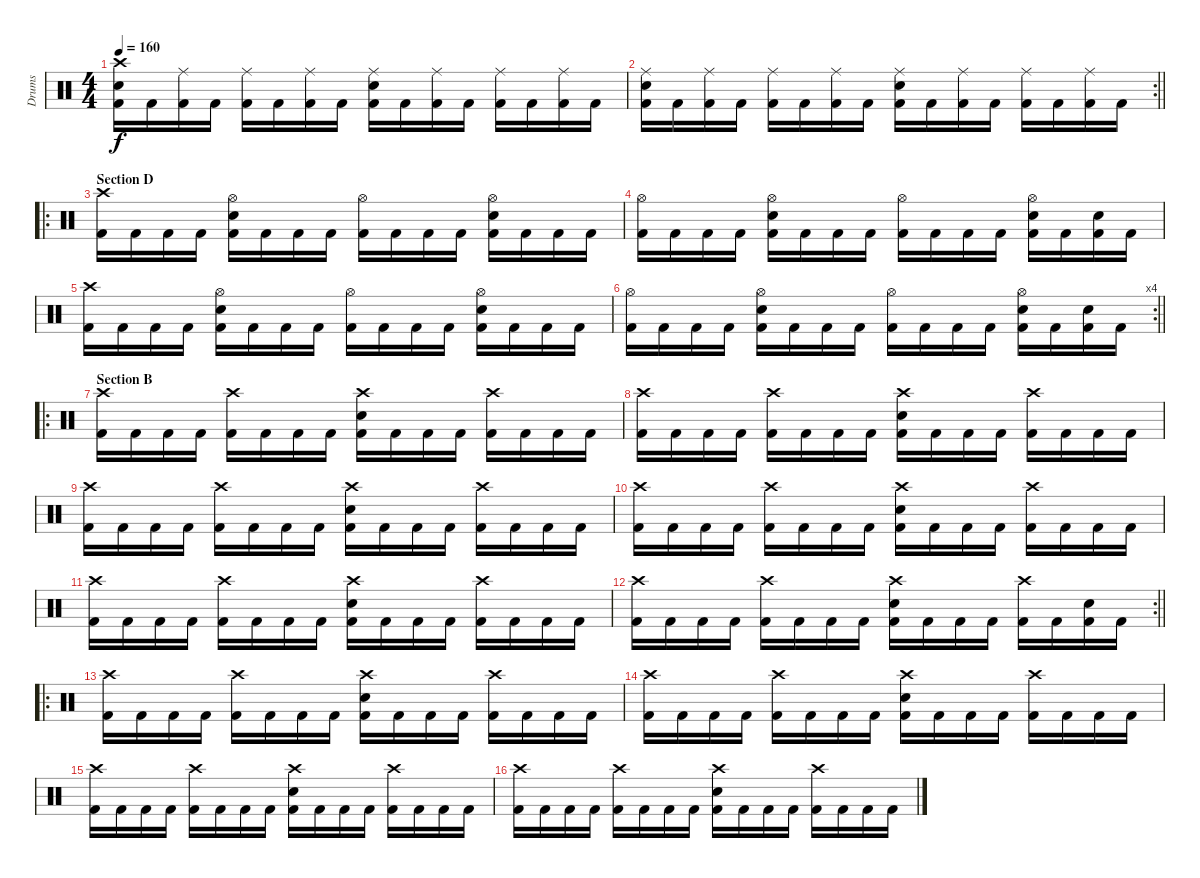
\track ("Drums" "Drums") {instrument percussion}
\staff {score}
\articulation defaults
\ts (4 4)
\tempo 160
\clef neutral
\ks c
("Crash high (hit)" "Snare (hit) 2" "Kick (hit) 2").16{dy f} "Kick (hit) 2".16 ("Ride (middle)" "Kick (hit) 2").16 "Kick (hit) 2".16 ("Ride (middle)" "Kick (hit) 2").16 "Kick (hit) 2".16 ("Ride (middle)" "Kick (hit) 2").16 "Kick (hit) 2".16 ("Ride (middle)" "Snare (hit) 2" "Kick (hit) 2").16 "Kick (hit) 2".16 ("Ride (middle)" "Kick (hit) 2").16 "Kick (hit) 2".16 ("Ride (middle)" "Kick (hit) 2").16 "Kick (hit) 2".16 ("Ride (middle)" "Kick (hit) 2").16 "Kick (hit) 2".16 |
\rc 2
\barLineRight lightlight
("Ride (middle)" "Snare (hit) 2" "Kick (hit) 2").16 "Kick (hit) 2".16 ("Ride (middle)" "Kick (hit) 2").16 "Kick (hit) 2".16 ("Ride (middle)" "Kick (hit) 2").16 "Kick (hit) 2".16 ("Ride (middle)" "Kick (hit) 2").16 "Kick (hit) 2".16 ("Ride (middle)" "Snare (hit) 2" "Kick (hit) 2").16 "Kick (hit) 2".16 ("Ride (middle)" "Kick (hit) 2").16 "Kick (hit) 2".16 ("Ride (middle)" "Kick (hit) 2").16 "Kick (hit) 2".16 ("Ride (middle)" "Kick (hit) 2").16 "Kick (hit) 2".16 |
\ro
\section ("" "Section D")
("Crash high (hit)" "Kick (hit) 2").16 "Kick (hit) 2".16 "Kick (hit) 2".16 "Kick (hit) 2".16 ("Hi-Hat (open)" "Snare (hit) 2" "Kick (hit) 2").16 "Kick (hit) 2".16 "Kick (hit) 2".16 "Kick (hit) 2".16 ("Hi-Hat (open)" "Kick (hit) 2").16 "Kick (hit) 2".16 "Kick (hit) 2".16 "Kick (hit) 2".16 ("Hi-Hat (open)" "Snare (hit) 2" "Kick (hit) 2").16 "Kick (hit) 2".16 "Kick (hit) 2".16 "Kick (hit) 2".16 |
("Hi-Hat (open)" "Kick (hit) 2").16 "Kick (hit) 2".16 "Kick (hit) 2".16 "Kick (hit) 2".16 ("Hi-Hat (open)" "Snare (hit) 2" "Kick (hit) 2").16 "Kick (hit) 2".16 "Kick (hit) 2".16 "Kick (hit) 2".16 ("Hi-Hat (open)" "Kick (hit) 2").16 "Kick (hit) 2".16 "Kick (hit) 2".16 "Kick (hit) 2".16 ("Hi-Hat (open)" "Snare (hit) 2" "Kick (hit) 2").16 "Kick (hit) 2".16 ("Snare (hit) 2" "Kick (hit) 2").16 "Kick (hit) 2".16 |
("Crash high (hit)" "Kick (hit) 2").16 "Kick (hit) 2".16 "Kick (hit) 2".16 "Kick (hit) 2".16 ("Hi-Hat (open)" "Snare (hit) 2" "Kick (hit) 2").16 "Kick (hit) 2".16 "Kick (hit) 2".16 "Kick (hit) 2".16 ("Hi-Hat (open)" "Kick (hit) 2").16 "Kick (hit) 2".16 "Kick (hit) 2".16 "Kick (hit) 2".16 ("Hi-Hat (open)" "Snare (hit) 2" "Kick (hit) 2").16 "Kick (hit) 2".16 "Kick (hit) 2".16 "Kick (hit) 2".16 |
\rc 4
\barLineRight lightlight
("Hi-Hat (open)" "Kick (hit) 2").16 "Kick (hit) 2".16 "Kick (hit) 2".16 "Kick (hit) 2".16 ("Hi-Hat (open)" "Snare (hit) 2" "Kick (hit) 2").16 "Kick (hit) 2".16 "Kick (hit) 2".16 "Kick (hit) 2".16 ("Hi-Hat (open)" "Kick (hit) 2").16 "Kick (hit) 2".16 "Kick (hit) 2".16 "Kick (hit) 2".16 ("Hi-Hat (open)" "Snare (hit) 2" "Kick (hit) 2").16 "Kick (hit) 2".16 ("Snare (hit) 2" "Kick (hit) 2").16 "Kick (hit) 2".16 |
\ro
\section ("" "Section B")
("Crash high (hit)" "Kick (hit) 2").16 "Kick (hit) 2".16 "Kick (hit) 2".16 "Kick (hit) 2".16 ("Crash high (hit)" "Kick (hit) 2").16 "Kick (hit) 2".16 "Kick (hit) 2".16 "Kick (hit) 2".16 ("Crash high (hit)" "Snare (hit) 2" "Kick (hit) 2").16 "Kick (hit) 2".16 "Kick (hit) 2".16 "Kick (hit) 2".16 ("Crash high (hit)" "Kick (hit) 2").16 "Kick (hit) 2".16 "Kick (hit) 2".16 "Kick (hit) 2".16 |
("Crash high (hit)" "Kick (hit) 2").16 "Kick (hit) 2".16 "Kick (hit) 2".16 "Kick (hit) 2".16 ("Crash high (hit)" "Kick (hit) 2").16 "Kick (hit) 2".16 "Kick (hit) 2".16 "Kick (hit) 2".16 ("Crash high (hit)" "Snare (hit) 2" "Kick (hit) 2").16 "Kick (hit) 2".16 "Kick (hit) 2".16 "Kick (hit) 2".16 ("Crash high (hit)" "Kick (hit) 2").16 "Kick (hit) 2".16 "Kick (hit) 2".16 "Kick (hit) 2".16 |
("Crash high (hit)" "Kick (hit) 2").16 "Kick (hit) 2".16 "Kick (hit) 2".16 "Kick (hit) 2".16 ("Crash high (hit)" "Kick (hit) 2").16 "Kick (hit) 2".16 "Kick (hit) 2".16 "Kick (hit) 2".16 ("Crash high (hit)" "Snare (hit) 2" "Kick (hit) 2").16 "Kick (hit) 2".16 "Kick (hit) 2".16 "Kick (hit) 2".16 ("Crash high (hit)" "Kick (hit) 2").16 "Kick (hit) 2".16 "Kick (hit) 2".16 "Kick (hit) 2".16 |
("Crash high (hit)" "Kick (hit) 2").16 "Kick (hit) 2".16 "Kick (hit) 2".16 "Kick (hit) 2".16 ("Crash high (hit)" "Kick (hit) 2").16 "Kick (hit) 2".16 "Kick (hit) 2".16 "Kick (hit) 2".16 ("Crash high (hit)" "Snare (hit) 2" "Kick (hit) 2").16 "Kick (hit) 2".16 "Kick (hit) 2".16 "Kick (hit) 2".16 ("Crash high (hit)" "Kick (hit) 2").16 "Kick (hit) 2".16 "Kick (hit) 2".16 "Kick (hit) 2".16 |
("Crash high (hit)" "Kick (hit) 2").16 "Kick (hit) 2".16 "Kick (hit) 2".16 "Kick (hit) 2".16 ("Crash high (hit)" "Kick (hit) 2").16 "Kick (hit) 2".16 "Kick (hit) 2".16 "Kick (hit) 2".16 ("Crash high (hit)" "Snare (hit) 2" "Kick (hit) 2").16 "Kick (hit) 2".16 "Kick (hit) 2".16 "Kick (hit) 2".16 ("Crash high (hit)" "Kick (hit) 2").16 "Kick (hit) 2".16 "Kick (hit) 2".16 "Kick (hit) 2".16 |
\rc 2
\barLineRight lightlight
("Crash high (hit)" "Kick (hit) 2").16 "Kick (hit) 2".16 "Kick (hit) 2".16 "Kick (hit) 2".16 ("Crash high (hit)" "Kick (hit) 2").16 "Kick (hit) 2".16 "Kick (hit) 2".16 "Kick (hit) 2".16 ("Crash high (hit)" "Snare (hit) 2" "Kick (hit) 2").16 "Kick (hit) 2".16 "Kick (hit) 2".16 "Kick (hit) 2".16 ("Crash high (hit)" "Kick (hit) 2").16 "Kick (hit) 2".16 ("Snare (hit) 2" "Kick (hit) 2").16 "Kick (hit) 2".16 |
\ro
("Crash high (hit)" "Kick (hit) 2").16 "Kick (hit) 2".16 "Kick (hit) 2".16 "Kick (hit) 2".16 ("Crash high (hit)" "Kick (hit) 2").16 "Kick (hit) 2".16 "Kick (hit) 2".16 "Kick (hit) 2".16 ("Crash high (hit)" "Snare (hit) 2" "Kick (hit) 2").16 "Kick (hit) 2".16 "Kick (hit) 2".16 "Kick (hit) 2".16 ("Crash high (hit)" "Kick (hit) 2").16 "Kick (hit) 2".16 "Kick (hit) 2".16 "Kick (hit) 2".16 |
("Crash high (hit)" "Kick (hit) 2").16 "Kick (hit) 2".16 "Kick (hit) 2".16 "Kick (hit) 2".16 ("Crash high (hit)" "Kick (hit) 2").16 "Kick (hit) 2".16 "Kick (hit) 2".16 "Kick (hit) 2".16 ("Crash high (hit)" "Snare (hit) 2" "Kick (hit) 2").16 "Kick (hit) 2".16 "Kick (hit) 2".16 "Kick (hit) 2".16 ("Crash high (hit)" "Kick (hit) 2").16 "Kick (hit) 2".16 "Kick (hit) 2".16 "Kick (hit) 2".16 |
("Crash high (hit)" "Kick (hit) 2").16 "Kick (hit) 2".16 "Kick (hit) 2".16 "Kick (hit) 2".16 ("Crash high (hit)" "Kick (hit) 2").16 "Kick (hit) 2".16 "Kick (hit) 2".16 "Kick (hit) 2".16 ("Crash high (hit)" "Snare (hit) 2" "Kick (hit) 2").16 "Kick (hit) 2".16 "Kick (hit) 2".16 "Kick (hit) 2".16 ("Crash high (hit)" "Kick (hit) 2").16 "Kick (hit) 2".16 "Kick (hit) 2".16 "Kick (hit) 2".16 |
("Crash high (hit)" "Kick (hit) 2").16 "Kick (hit) 2".16 "Kick (hit) 2".16 "Kick (hit) 2".16 ("Crash high (hit)" "Kick (hit) 2").16 "Kick (hit) 2".16 "Kick (hit) 2".16 "Kick (hit) 2".16 ("Crash high (hit)" "Snare (hit) 2" "Kick (hit) 2").16 "Kick (hit) 2".16 "Kick (hit) 2".16 "Kick (hit) 2".16 ("Crash high (hit)" "Kick (hit) 2").16 "Kick (hit) 2".16 "Kick (hit) 2".16 "Kick (hit) 2".16
